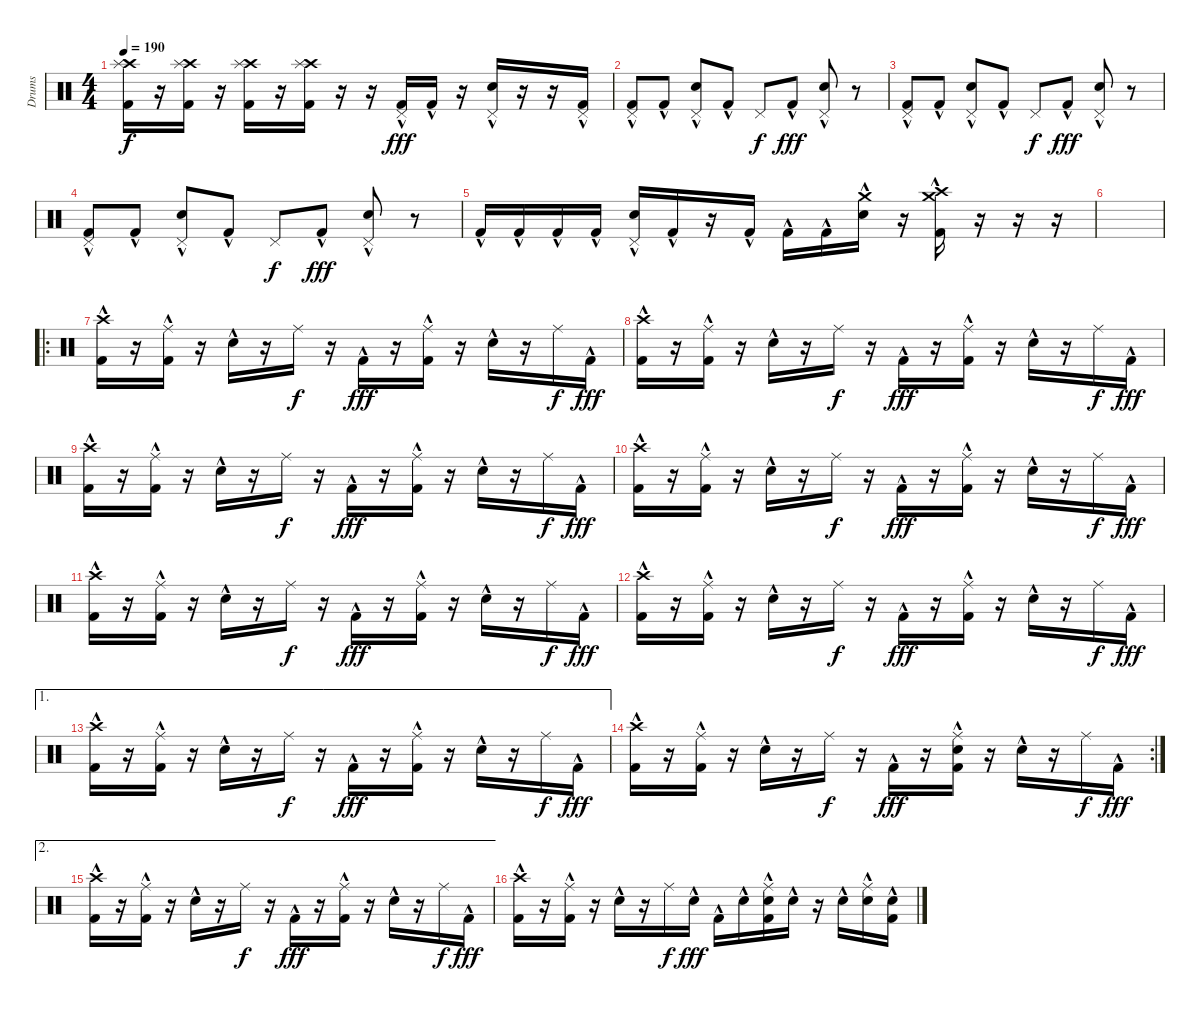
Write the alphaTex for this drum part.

\track ("Drums" "Drums") {instrument percussion}
\staff {score}
\articulation defaults
\ts (4 4)
\tempo 190
\clef neutral
\ks c
("Crash high (hit)" "Splash (hit)" "Kick (hit) 2").16{dy f} r.16 ("Crash high (hit)" "Splash (hit)" "Kick (hit) 2").16 r.16 ("Crash high (hit)" "Splash (hit)" "Kick (hit) 2").16 r.16 ("Crash high (hit)" "Splash (hit)" "Kick (hit) 2").16 r.16 r.16 ("Pedal Hi-Hat (hit)" "Kick (hit) 2"{hac}).16{dy fff} "Kick (hit) 2"{hac}.16 r.16 ("Pedal Hi-Hat (hit)" "Snare (hit) 2"{hac}).16 r.16 r.16 ("Pedal Hi-Hat (hit)" "Kick (hit) 2"{hac}).16 |
("Pedal Hi-Hat (hit)" "Kick (hit) 2"{hac}).8 "Kick (hit) 2"{hac}.8 ("Pedal Hi-Hat (hit)" "Snare (hit) 2"{hac}).8 "Kick (hit) 2"{hac}.8 "Pedal Hi-Hat (hit)".8{dy f} "Kick (hit) 2"{hac}.8{dy fff} ("Pedal Hi-Hat (hit)" "Snare (hit) 2"{hac}).8 r.8 |
("Pedal Hi-Hat (hit)" "Kick (hit) 2"{hac}).8 "Kick (hit) 2"{hac}.8 ("Pedal Hi-Hat (hit)" "Snare (hit) 2"{hac}).8 "Kick (hit) 2"{hac}.8 "Pedal Hi-Hat (hit)".8{dy f} "Kick (hit) 2"{hac}.8{dy fff} ("Pedal Hi-Hat (hit)" "Snare (hit) 2"{hac}).8 r.8 |
("Pedal Hi-Hat (hit)" "Kick (hit) 2"{hac}).8 "Kick (hit) 2"{hac}.8 ("Pedal Hi-Hat (hit)" "Snare (hit) 2"{hac}).8 "Kick (hit) 2"{hac}.8 "Pedal Hi-Hat (hit)".8{dy f} "Kick (hit) 2"{hac}.8{dy fff} ("Pedal Hi-Hat (hit)" "Snare (hit) 2"{hac}).8 r.8 |
"Kick (hit) 2"{hac}.16 "Kick (hit) 2"{hac}.16 "Kick (hit) 2"{hac}.16 "Kick (hit) 2"{hac}.16 ("Pedal Hi-Hat (hit)" "Snare (hit) 2"{hac}).16 "Kick (hit) 2"{hac}.16 r.16 "Kick (hit) 2"{hac}.16 "Kick (hit) 2"{hac}.16 "Kick (hit) 2"{hac}.16 ("Crash medium (hit)" "Snare (hit) 2"{hac}).16 r.16 ("Crash high (hit)" "Crash medium (hit)" "Kick (hit) 2"{hac}).16 r.16 r.16 r.16 |
|
\ro
("Crash high (hit)" "Kick (hit) 2"{hac}).16 r.16 ("Ride (middle)" "Kick (hit) 2"{hac}).16 r.16 "Snare (hit) 2"{hac}.16 r.16 "Ride (middle)".16{dy f} r.16 "Kick (hit) 2"{hac}.16{dy fff} r.16 ("Ride (middle)" "Kick (hit) 2"{hac}).16 r.16 "Snare (hit) 2"{hac}.16 r.16 "Ride (middle)".16{dy f} "Kick (hit) 2"{hac}.16{dy fff} |
("Crash high (hit)" "Kick (hit) 2"{hac}).16 r.16 ("Ride (middle)" "Kick (hit) 2"{hac}).16 r.16 "Snare (hit) 2"{hac}.16 r.16 "Ride (middle)".16{dy f} r.16 "Kick (hit) 2"{hac}.16{dy fff} r.16 ("Ride (middle)" "Kick (hit) 2"{hac}).16 r.16 "Snare (hit) 2"{hac}.16 r.16 "Ride (middle)".16{dy f} "Kick (hit) 2"{hac}.16{dy fff} |
("Crash high (hit)" "Kick (hit) 2"{hac}).16 r.16 ("Ride (middle)" "Kick (hit) 2"{hac}).16 r.16 "Snare (hit) 2"{hac}.16 r.16 "Ride (middle)".16{dy f} r.16 "Kick (hit) 2"{hac}.16{dy fff} r.16 ("Ride (middle)" "Kick (hit) 2"{hac}).16 r.16 "Snare (hit) 2"{hac}.16 r.16 "Ride (middle)".16{dy f} "Kick (hit) 2"{hac}.16{dy fff} |
("Crash high (hit)" "Kick (hit) 2"{hac}).16 r.16 ("Ride (middle)" "Kick (hit) 2"{hac}).16 r.16 "Snare (hit) 2"{hac}.16 r.16 "Ride (middle)".16{dy f} r.16 "Kick (hit) 2"{hac}.16{dy fff} r.16 ("Ride (middle)" "Kick (hit) 2"{hac}).16 r.16 "Snare (hit) 2"{hac}.16 r.16 "Ride (middle)".16{dy f} "Kick (hit) 2"{hac}.16{dy fff} |
("Crash high (hit)" "Kick (hit) 2"{hac}).16 r.16 ("Ride (middle)" "Kick (hit) 2"{hac}).16 r.16 "Snare (hit) 2"{hac}.16 r.16 "Ride (middle)".16{dy f} r.16 "Kick (hit) 2"{hac}.16{dy fff} r.16 ("Ride (middle)" "Kick (hit) 2"{hac}).16 r.16 "Snare (hit) 2"{hac}.16 r.16 "Ride (middle)".16{dy f} "Kick (hit) 2"{hac}.16{dy fff} |
("Crash high (hit)" "Kick (hit) 2"{hac}).16 r.16 ("Ride (middle)" "Kick (hit) 2"{hac}).16 r.16 "Snare (hit) 2"{hac}.16 r.16 "Ride (middle)".16{dy f} r.16 "Kick (hit) 2"{hac}.16{dy fff} r.16 ("Ride (middle)" "Kick (hit) 2"{hac}).16 r.16 "Snare (hit) 2"{hac}.16 r.16 "Ride (middle)".16{dy f} "Kick (hit) 2"{hac}.16{dy fff} |
\ae 1
("Crash high (hit)" "Kick (hit) 2"{hac}).16 r.16 ("Ride (middle)" "Kick (hit) 2"{hac}).16 r.16 "Snare (hit) 2"{hac}.16 r.16 "Ride (middle)".16{dy f} r.16 "Kick (hit) 2"{hac}.16{dy fff} r.16 ("Ride (middle)" "Kick (hit) 2"{hac}).16 r.16 "Snare (hit) 2"{hac}.16 r.16 "Ride (middle)".16{dy f} "Kick (hit) 2"{hac}.16{dy fff} |
\rc 2
("Crash high (hit)" "Kick (hit) 2"{hac}).16 r.16 ("Ride (middle)" "Kick (hit) 2"{hac}).16 r.16 "Snare (hit) 2"{hac}.16 r.16 "Ride (middle)".16{dy f} r.16 "Kick (hit) 2"{hac}.16{dy fff} r.16 ("Ride (middle)" "Snare (hit) 2"{hac} "Kick (hit) 2"{hac}).16 r.16 "Snare (hit) 2"{hac}.16 r.16 "Ride (middle)".16{dy f} "Kick (hit) 2"{hac}.16{dy fff} |
\ae 2
("Crash high (hit)" "Kick (hit) 2"{hac}).16 r.16 ("Ride (middle)" "Kick (hit) 2"{hac}).16 r.16 "Snare (hit) 2"{hac}.16 r.16 "Ride (middle)".16{dy f} r.16 "Kick (hit) 2"{hac}.16{dy fff} r.16 ("Ride (middle)" "Kick (hit) 2"{hac}).16 r.16 "Snare (hit) 2"{hac}.16 r.16 "Ride (middle)".16{dy f} "Kick (hit) 2"{hac}.16{dy fff} |
("Crash high (hit)" "Kick (hit) 2"{hac}).16 r.16 ("Ride (middle)" "Kick (hit) 2"{hac}).16 r.16 "Snare (hit) 2"{hac}.16 r.16 "Ride (middle)".16{dy f} "Snare (hit) 2"{hac}.16{dy fff} "Kick (hit) 2"{hac}.16 "Snare (hit) 2"{hac}.16 ("Ride (middle)" "Snare (hit) 2"{hac} "Kick (hit) 2"{hac}).16 "Snare (hit) 2"{hac}.16 r.16 "Snare (hit) 2"{hac}.16 ("Ride (middle)" "Snare (hit) 2"{hac}).16 ("Snare (hit) 2"{hac} "Kick (hit) 2"{hac}).16
